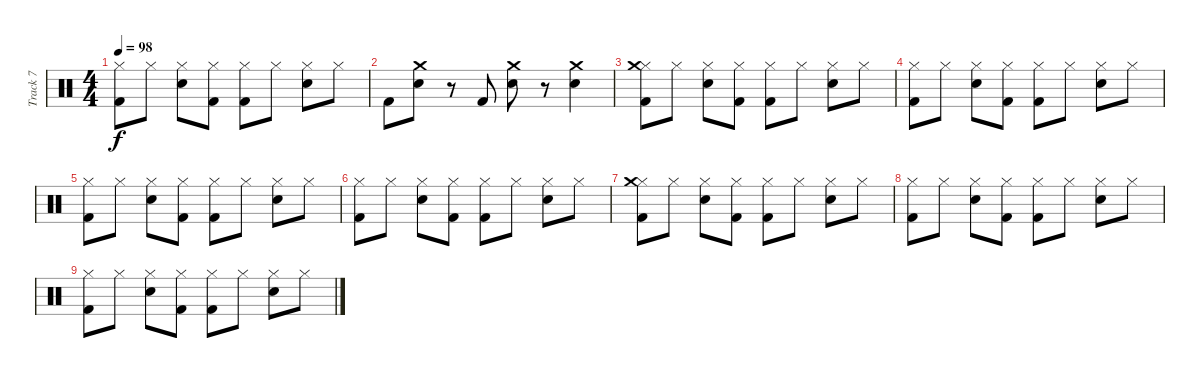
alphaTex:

\track ("Track 7" "Track 7") {instrument percussion}
\staff {score}
\articulation defaults
\ts (4 4)
\tempo 98
\clef neutral
\ks c
("Hi-Hat (closed)" "Kick (hit) 2").8{dy f} "Hi-Hat (closed)".8 ("Hi-Hat (closed)" "Electric Snare (hit)").8 ("Hi-Hat (closed)" "Kick (hit) 2").8 ("Hi-Hat (closed)" "Kick (hit) 2").8 "Hi-Hat (closed)".8 ("Hi-Hat (closed)" "Electric Snare (hit)").8 "Hi-Hat (closed)".8 |
"Kick (hit) 2".8 ("Crash medium (hit)" "Electric Snare (hit)").8 r.8 "Kick (hit) 2".8 ("Crash medium (hit)" "Electric Snare (hit)").8 r.8 ("Crash medium (hit)" "Electric Snare (hit)").4 |
("Hi-Hat (closed)" "Crash medium (hit)" "Kick (hit) 2").8 "Hi-Hat (closed)".8 ("Hi-Hat (closed)" "Electric Snare (hit)").8 ("Hi-Hat (closed)" "Kick (hit) 2").8 ("Hi-Hat (closed)" "Kick (hit) 2").8 "Hi-Hat (closed)".8 ("Hi-Hat (closed)" "Electric Snare (hit)").8 "Hi-Hat (closed)".8 |
("Hi-Hat (closed)" "Kick (hit) 2").8 "Hi-Hat (closed)".8 ("Hi-Hat (closed)" "Electric Snare (hit)").8 ("Hi-Hat (closed)" "Kick (hit) 2").8 ("Hi-Hat (closed)" "Kick (hit) 2").8 "Hi-Hat (closed)".8 ("Hi-Hat (closed)" "Electric Snare (hit)").8 "Hi-Hat (closed)".8 |
("Hi-Hat (closed)" "Kick (hit) 2").8 "Hi-Hat (closed)".8 ("Hi-Hat (closed)" "Electric Snare (hit)").8 ("Hi-Hat (closed)" "Kick (hit) 2").8 ("Hi-Hat (closed)" "Kick (hit) 2").8 "Hi-Hat (closed)".8 ("Hi-Hat (closed)" "Electric Snare (hit)").8 "Hi-Hat (closed)".8 |
("Hi-Hat (closed)" "Kick (hit) 2").8 "Hi-Hat (closed)".8 ("Hi-Hat (closed)" "Electric Snare (hit)").8 ("Hi-Hat (closed)" "Kick (hit) 2").8 ("Hi-Hat (closed)" "Kick (hit) 2").8 "Hi-Hat (closed)".8 ("Hi-Hat (closed)" "Electric Snare (hit)").8 "Hi-Hat (closed)".8 |
("Hi-Hat (closed)" "Crash medium (hit)" "Kick (hit) 2").8 "Hi-Hat (closed)".8 ("Hi-Hat (closed)" "Electric Snare (hit)").8 ("Hi-Hat (closed)" "Kick (hit) 2").8 ("Hi-Hat (closed)" "Kick (hit) 2").8 "Hi-Hat (closed)".8 ("Hi-Hat (closed)" "Electric Snare (hit)").8 "Hi-Hat (closed)".8 |
("Hi-Hat (closed)" "Kick (hit) 2").8 "Hi-Hat (closed)".8 ("Hi-Hat (closed)" "Electric Snare (hit)").8 ("Hi-Hat (closed)" "Kick (hit) 2").8 ("Hi-Hat (closed)" "Kick (hit) 2").8 "Hi-Hat (closed)".8 ("Hi-Hat (closed)" "Electric Snare (hit)").8 "Hi-Hat (closed)".8 |
("Hi-Hat (closed)" "Kick (hit) 2").8 "Hi-Hat (closed)".8 ("Hi-Hat (closed)" "Electric Snare (hit)").8 ("Hi-Hat (closed)" "Kick (hit) 2").8 ("Hi-Hat (closed)" "Kick (hit) 2").8 "Hi-Hat (closed)".8 ("Hi-Hat (closed)" "Electric Snare (hit)").8 "Hi-Hat (closed)".8
